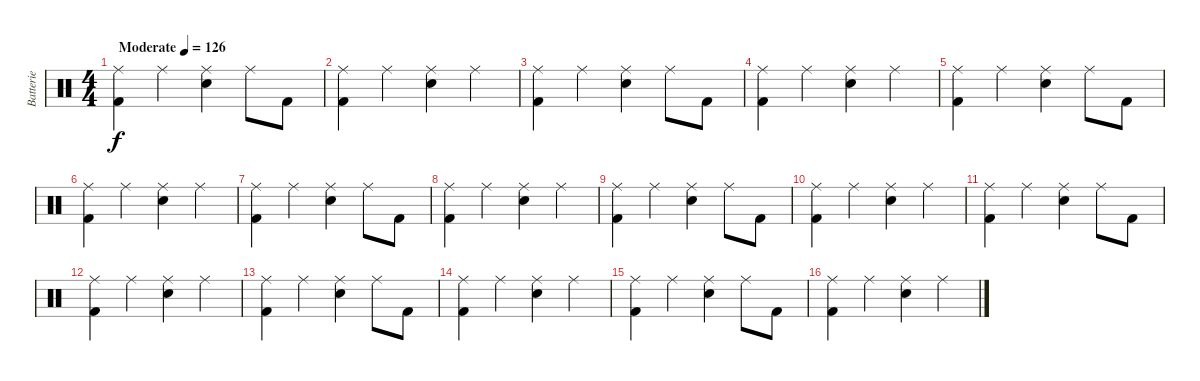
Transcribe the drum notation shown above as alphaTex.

\track ("Batterie" "Batterie") {instrument percussion}
\staff {score}
\articulation defaults
\ts (4 4)
\tempo (126 "Moderate")
\clef neutral
\ks c
("Ride (middle)" "Kick (hit) 2").4{dy f} "Ride (middle)".4 ("Ride (middle)" "Snare (hit) 2").4 "Ride (middle)".8 "Kick (hit) 2".8 |
("Ride (middle)" "Kick (hit) 2").4 "Ride (middle)".4 ("Ride (middle)" "Snare (hit) 2").4 "Ride (middle)".4 |
("Ride (middle)" "Kick (hit) 2").4 "Ride (middle)".4 ("Ride (middle)" "Snare (hit) 2").4 "Ride (middle)".8 "Kick (hit) 2".8 |
("Ride (middle)" "Kick (hit) 2").4 "Ride (middle)".4 ("Ride (middle)" "Snare (hit) 2").4 "Ride (middle)".4 |
("Ride (middle)" "Kick (hit) 2").4 "Ride (middle)".4 ("Ride (middle)" "Snare (hit) 2").4 "Ride (middle)".8 "Kick (hit) 2".8 |
("Ride (middle)" "Kick (hit) 2").4 "Ride (middle)".4 ("Ride (middle)" "Snare (hit) 2").4 "Ride (middle)".4 |
("Ride (middle)" "Kick (hit) 2").4 "Ride (middle)".4 ("Ride (middle)" "Snare (hit) 2").4 "Ride (middle)".8 "Kick (hit) 2".8 |
("Ride (middle)" "Kick (hit) 2").4 "Ride (middle)".4 ("Ride (middle)" "Snare (hit) 2").4 "Ride (middle)".4 |
("Ride (middle)" "Kick (hit) 2").4 "Ride (middle)".4 ("Ride (middle)" "Snare (hit) 2").4 "Ride (middle)".8 "Kick (hit) 2".8 |
("Ride (middle)" "Kick (hit) 2").4 "Ride (middle)".4 ("Ride (middle)" "Snare (hit) 2").4 "Ride (middle)".4 |
("Ride (middle)" "Kick (hit) 2").4 "Ride (middle)".4 ("Ride (middle)" "Snare (hit) 2").4 "Ride (middle)".8 "Kick (hit) 2".8 |
("Ride (middle)" "Kick (hit) 2").4 "Ride (middle)".4 ("Ride (middle)" "Snare (hit) 2").4 "Ride (middle)".4 |
("Ride (middle)" "Kick (hit) 2").4 "Ride (middle)".4 ("Ride (middle)" "Snare (hit) 2").4 "Ride (middle)".8 "Kick (hit) 2".8 |
("Ride (middle)" "Kick (hit) 2").4 "Ride (middle)".4 ("Ride (middle)" "Snare (hit) 2").4 "Ride (middle)".4 |
("Ride (middle)" "Kick (hit) 2").4 "Ride (middle)".4 ("Ride (middle)" "Snare (hit) 2").4 "Ride (middle)".8 "Kick (hit) 2".8 |
("Ride (middle)" "Kick (hit) 2").4 "Ride (middle)".4 ("Ride (middle)" "Snare (hit) 2").4 "Ride (middle)".4
